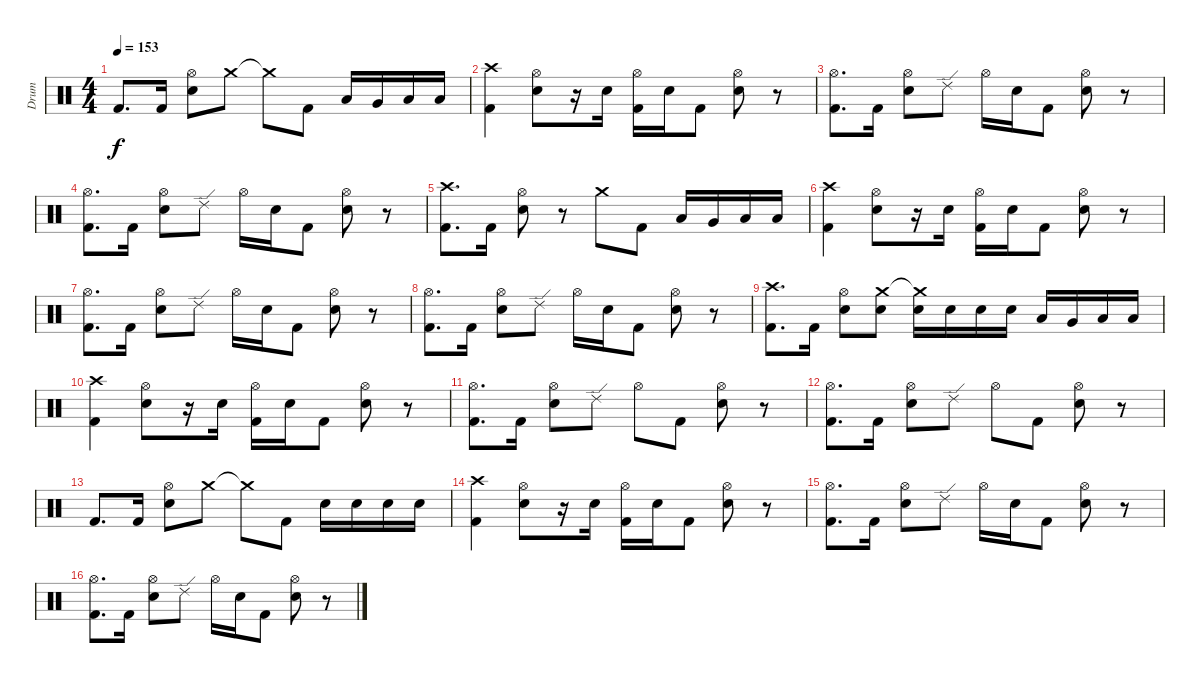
\track ("Drum" "Drum") {instrument percussion}
\staff {score}
\articulation defaults
\ts (4 4)
\tempo 153
\clef neutral
\ks c "Kick (hit) 2".8{d dy f} "Kick (hit) 2".16
("Hi-Hat (open)" "Snare (hit) 2").8 "Crash medium (hit)".8 "Crash medium (hit)"{t}.8 "Kick (hit) 2".8 "Low Tom (hit)".16 "Very Low Tom (hit)".16 "Low Floor Tom (hit)".16 "Low Floor Tom (hit)".16 |
("Crash high (hit)" "Kick (hit) 2").4 ("Hi-Hat (open)" "Snare (hit) 2").8 r.16 "Snare (hit) 2".16 ("Hi-Hat (open)" "Kick (hit) 2").16 "Snare (hit) 2".16 "Kick (hit) 2".8 ("Hi-Hat (open)" "Snare (hit) 2").8 r.8 |
("Hi-Hat (open)" "Kick (hit) 2").8{d} "Kick (hit) 2".16 ("Hi-Hat (open)" "Snare (hit) 2").8 "Ride (edge) 2".8 "Hi-Hat (open)".16 "Electric Snare (hit)".16 "Kick (hit) 2".8 ("Hi-Hat (open)" "Snare (hit) 2").8 r.8 |
("Hi-Hat (open)" "Kick (hit) 2").8{d} "Kick (hit) 2".16 ("Hi-Hat (open)" "Snare (hit) 2").8 "Ride (edge) 2".8 "Hi-Hat (open)".16 "Electric Snare (hit)".16 "Kick (hit) 2".8 ("Hi-Hat (open)" "Snare (hit) 2").8 r.8 |
("Crash high (hit)" "Kick (hit) 2").8{d} "Kick (hit) 2".16 ("Hi-Hat (open)" "Snare (hit) 2").8 r.8 "Crash medium (hit)".8 "Kick (hit) 2".8 "Low Tom (hit)".16 "Very Low Tom (hit)".16 "Low Floor Tom (hit)".16 "Low Floor Tom (hit)".16 |
("Crash high (hit)" "Kick (hit) 2").4 ("Hi-Hat (open)" "Snare (hit) 2").8 r.16 "Snare (hit) 2".16 ("Hi-Hat (open)" "Kick (hit) 2").16 "Snare (hit) 2".16 "Kick (hit) 2".8 ("Hi-Hat (open)" "Snare (hit) 2").8 r.8 |
("Hi-Hat (open)" "Kick (hit) 2").8{d} "Kick (hit) 2".16 ("Hi-Hat (open)" "Snare (hit) 2").8 "Ride (edge) 2".8 "Hi-Hat (open)".16 "Electric Snare (hit)".16 "Kick (hit) 2".8 ("Hi-Hat (open)" "Snare (hit) 2").8 r.8 |
("Hi-Hat (open)" "Kick (hit) 2").8{d} "Kick (hit) 2".16 ("Hi-Hat (open)" "Snare (hit) 2").8 "Ride (edge) 2".8 "Hi-Hat (open)".16 "Electric Snare (hit)".16 "Kick (hit) 2".8 ("Hi-Hat (open)" "Snare (hit) 2").8 r.8 |
("Crash high (hit)" "Kick (hit) 2").8{d} "Kick (hit) 2".16 ("Hi-Hat (open)" "Snare (hit) 2").8 ("Crash medium (hit)" "Electric Snare (hit)").8 ("Crash medium (hit)"{t} "Electric Snare (hit)").16 "Electric Snare (hit)".16 "Electric Snare (hit)".16 "Electric Snare (hit)".16 "Low Tom (hit)".16 "Very Low Tom (hit)".16 "Low Floor Tom (hit)".16 "Low Floor Tom (hit)".16 |
("Crash high (hit)" "Kick (hit) 2").4 ("Hi-Hat (open)" "Snare (hit) 2").8 r.16 "Snare (hit) 2".16 ("Hi-Hat (open)" "Kick (hit) 2").16 "Snare (hit) 2".16 "Kick (hit) 2".8 ("Hi-Hat (open)" "Snare (hit) 2").8 r.8 |
("Hi-Hat (open)" "Kick (hit) 2").8{d} "Kick (hit) 2".16 ("Hi-Hat (open)" "Snare (hit) 2").8 "Ride (edge) 2".8 "Hi-Hat (open)".8 "Kick (hit) 2".8 ("Hi-Hat (open)" "Snare (hit) 2").8 r.8 |
("Hi-Hat (open)" "Kick (hit) 2").8{d} "Kick (hit) 2".16 ("Hi-Hat (open)" "Snare (hit) 2").8 "Ride (edge) 2".8 "Hi-Hat (open)".8 "Kick (hit) 2".8 ("Hi-Hat (open)" "Snare (hit) 2").8 r.8 |
"Kick (hit) 2".8{d} "Kick (hit) 2".16 ("Hi-Hat (open)" "Snare (hit) 2").8 "Crash medium (hit)".8 "Crash medium (hit)"{t}.8 "Kick (hit) 2".8 "Electric Snare (hit)".16 "Electric Snare (hit)".16 "Electric Snare (hit)".16 "Electric Snare (hit)".16 |
("Crash high (hit)" "Kick (hit) 2").4 ("Hi-Hat (open)" "Snare (hit) 2").8 r.16 "Snare (hit) 2".16 ("Hi-Hat (open)" "Kick (hit) 2").16 "Snare (hit) 2".16 "Kick (hit) 2".8 ("Hi-Hat (open)" "Snare (hit) 2").8 r.8 |
("Hi-Hat (open)" "Kick (hit) 2").8{d} "Kick (hit) 2".16 ("Hi-Hat (open)" "Snare (hit) 2").8 "Ride (edge) 2".8 "Hi-Hat (open)".16 "Electric Snare (hit)".16 "Kick (hit) 2".8 ("Hi-Hat (open)" "Snare (hit) 2").8 r.8 |
("Hi-Hat (open)" "Kick (hit) 2").8{d} "Kick (hit) 2".16 ("Hi-Hat (open)" "Snare (hit) 2").8 "Ride (edge) 2".8 "Hi-Hat (open)".16 "Electric Snare (hit)".16 "Kick (hit) 2".8 ("Hi-Hat (open)" "Snare (hit) 2").8 r.8
